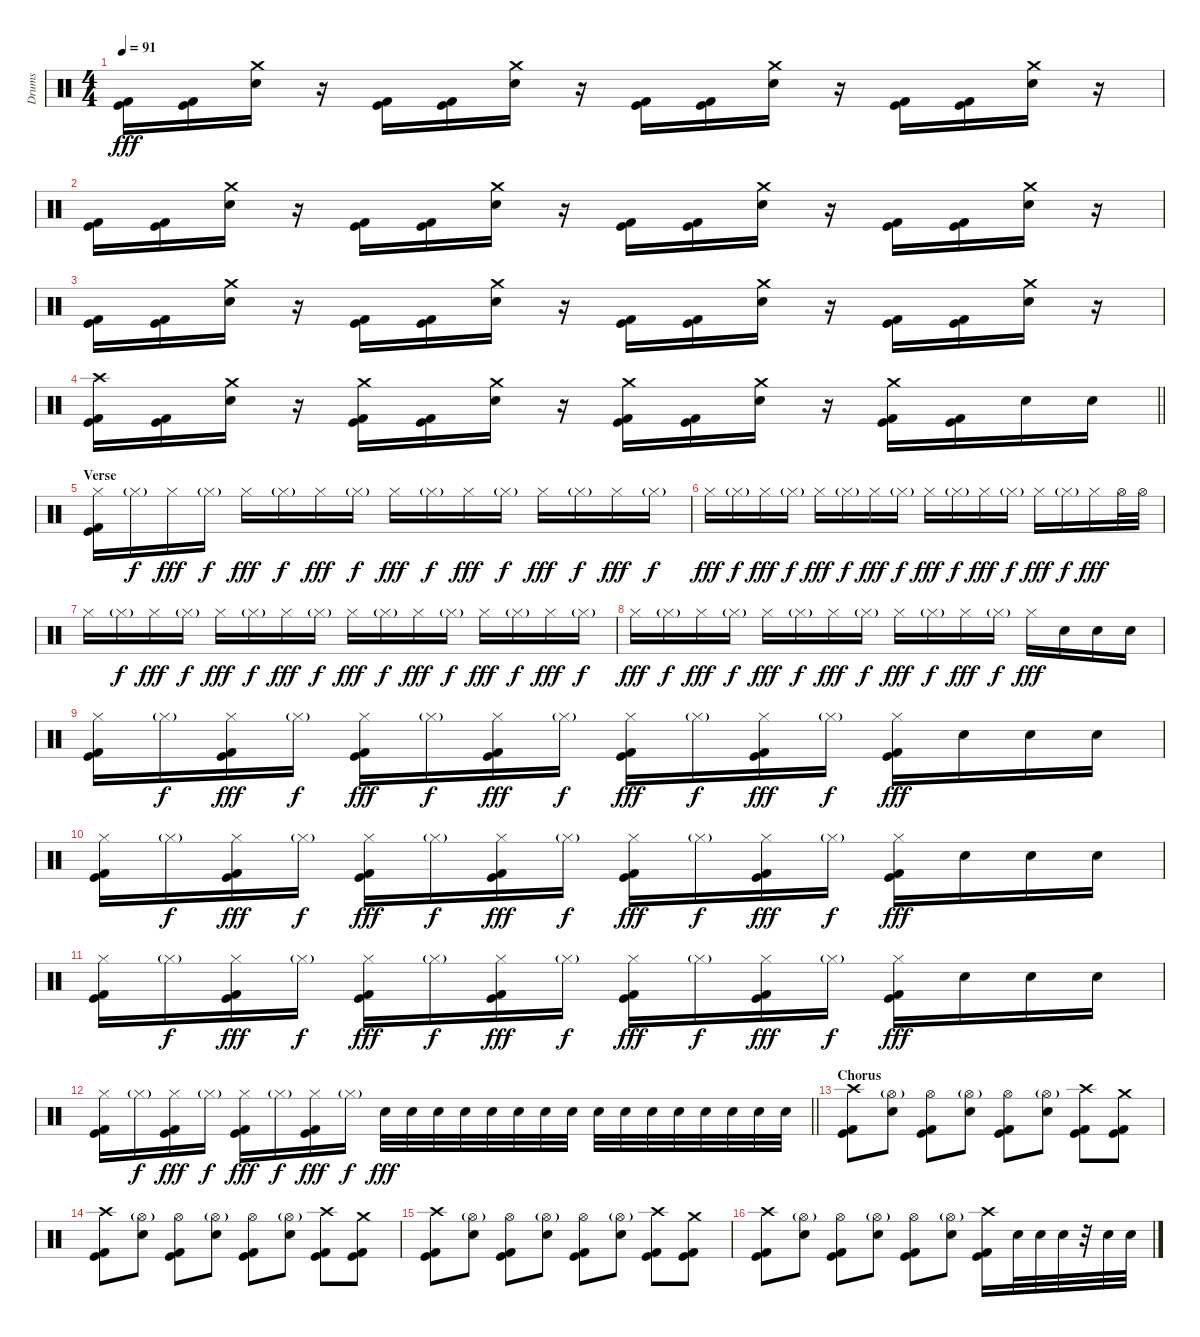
\track ("Drums" "Drums") {instrument percussion}
\staff {score}
\articulation defaults
\ts (4 4)
\tempo 91
\clef neutral
\ks c
("Kick (hit)" "Kick (hit) 2").16{dy fff} ("Kick (hit)" "Kick (hit) 2").16 ("Crash medium (hit)" "Electric Snare (hit)").16 r.16 ("Kick (hit)" "Kick (hit) 2").16 ("Kick (hit)" "Kick (hit) 2").16 ("Crash medium (hit)" "Electric Snare (hit)").16 r.16 ("Kick (hit)" "Kick (hit) 2").16 ("Kick (hit)" "Kick (hit) 2").16 ("Crash medium (hit)" "Electric Snare (hit)").16 r.16 ("Kick (hit)" "Kick (hit) 2").16 ("Kick (hit)" "Kick (hit) 2").16 ("Crash medium (hit)" "Electric Snare (hit)").16 r.16 |
("Kick (hit)" "Kick (hit) 2").16 ("Kick (hit)" "Kick (hit) 2").16 ("Crash medium (hit)" "Electric Snare (hit)").16 r.16 ("Kick (hit)" "Kick (hit) 2").16 ("Kick (hit)" "Kick (hit) 2").16 ("Crash medium (hit)" "Electric Snare (hit)").16 r.16 ("Kick (hit)" "Kick (hit) 2").16 ("Kick (hit)" "Kick (hit) 2").16 ("Crash medium (hit)" "Electric Snare (hit)").16 r.16 ("Kick (hit)" "Kick (hit) 2").16 ("Kick (hit)" "Kick (hit) 2").16 ("Crash medium (hit)" "Electric Snare (hit)").16 r.16 |
("Kick (hit)" "Kick (hit) 2").16 ("Kick (hit)" "Kick (hit) 2").16 ("Crash medium (hit)" "Electric Snare (hit)").16 r.16 ("Kick (hit)" "Kick (hit) 2").16 ("Kick (hit)" "Kick (hit) 2").16 ("Crash medium (hit)" "Electric Snare (hit)").16 r.16 ("Kick (hit)" "Kick (hit) 2").16 ("Kick (hit)" "Kick (hit) 2").16 ("Crash medium (hit)" "Electric Snare (hit)").16 r.16 ("Kick (hit)" "Kick (hit) 2").16 ("Kick (hit)" "Kick (hit) 2").16 ("Crash medium (hit)" "Electric Snare (hit)").16 r.16 |
\barLineRight lightlight
("Crash high (hit)" "Kick (hit)" "Kick (hit) 2").16 ("Kick (hit)" "Kick (hit) 2").16 ("Crash medium (hit)" "Electric Snare (hit)").16 r.16 ("Crash medium (hit)" "Kick (hit)" "Kick (hit) 2").16 ("Kick (hit)" "Kick (hit) 2").16 ("Crash medium (hit)" "Electric Snare (hit)").16 r.16 ("Crash medium (hit)" "Kick (hit)" "Kick (hit) 2").16 ("Kick (hit)" "Kick (hit) 2").16 ("Crash medium (hit)" "Electric Snare (hit)").16 r.16 ("Crash medium (hit)" "Kick (hit)" "Kick (hit) 2").16 ("Kick (hit)" "Kick (hit) 2").16 "Electric Snare (hit)".16 "Electric Snare (hit)".16 |
\section ("" "Verse")
("Hi-Hat (closed)" "Kick (hit)" "Kick (hit) 2").16 "Hi-Hat (closed)"{g}.16{dy f} "Hi-Hat (closed)".16{dy fff} "Hi-Hat (closed)"{g}.16{dy f} "Hi-Hat (closed)".16{dy fff} "Hi-Hat (closed)"{g}.16{dy f} "Hi-Hat (closed)".16{dy fff} "Hi-Hat (closed)"{g}.16{dy f} "Hi-Hat (closed)".16{dy fff} "Hi-Hat (closed)"{g}.16{dy f} "Hi-Hat (closed)".16{dy fff} "Hi-Hat (closed)"{g}.16{dy f} "Hi-Hat (closed)".16{dy fff} "Hi-Hat (closed)"{g}.16{dy f} "Hi-Hat (closed)".16{dy fff} "Hi-Hat (closed)"{g}.16{dy f} |
"Hi-Hat (closed)".16{dy fff} "Hi-Hat (closed)"{g}.16{dy f} "Hi-Hat (closed)".16{dy fff} "Hi-Hat (closed)"{g}.16{dy f} "Hi-Hat (closed)".16{dy fff} "Hi-Hat (closed)"{g}.16{dy f} "Hi-Hat (closed)".16{dy fff} "Hi-Hat (closed)"{g}.16{dy f} "Hi-Hat (closed)".16{dy fff} "Hi-Hat (closed)"{g}.16{dy f} "Hi-Hat (closed)".16{dy fff} "Hi-Hat (closed)"{g}.16{dy f} "Hi-Hat (closed)".16{dy fff} "Hi-Hat (closed)"{g}.16{dy f} "Hi-Hat (closed)".16{dy fff} "Hi-Hat (open)".32 "Hi-Hat (open)".32 |
"Hi-Hat (closed)".16 "Hi-Hat (closed)"{g}.16{dy f} "Hi-Hat (closed)".16{dy fff} "Hi-Hat (closed)"{g}.16{dy f} "Hi-Hat (closed)".16{dy fff} "Hi-Hat (closed)"{g}.16{dy f} "Hi-Hat (closed)".16{dy fff} "Hi-Hat (closed)"{g}.16{dy f} "Hi-Hat (closed)".16{dy fff} "Hi-Hat (closed)"{g}.16{dy f} "Hi-Hat (closed)".16{dy fff} "Hi-Hat (closed)"{g}.16{dy f} "Hi-Hat (closed)".16{dy fff} "Hi-Hat (closed)"{g}.16{dy f} "Hi-Hat (closed)".16{dy fff} "Hi-Hat (closed)"{g}.16{dy f} |
"Hi-Hat (closed)".16{dy fff} "Hi-Hat (closed)"{g}.16{dy f} "Hi-Hat (closed)".16{dy fff} "Hi-Hat (closed)"{g}.16{dy f} "Hi-Hat (closed)".16{dy fff} "Hi-Hat (closed)"{g}.16{dy f} "Hi-Hat (closed)".16{dy fff} "Hi-Hat (closed)"{g}.16{dy f} "Hi-Hat (closed)".16{dy fff} "Hi-Hat (closed)"{g}.16{dy f} "Hi-Hat (closed)".16{dy fff} "Hi-Hat (closed)"{g}.16{dy f} "Hi-Hat (closed)".16{dy fff} "Electric Snare (hit)".16 "Electric Snare (hit)".16 "Electric Snare (hit)".16 |
("Hi-Hat (closed)" "Kick (hit)" "Kick (hit) 2").16 "Hi-Hat (closed)"{g}.16{dy f} ("Hi-Hat (closed)" "Kick (hit)" "Kick (hit) 2").16{dy fff} "Hi-Hat (closed)"{g}.16{dy f} ("Hi-Hat (closed)" "Kick (hit)" "Kick (hit) 2").16{dy fff} "Hi-Hat (closed)"{g}.16{dy f} ("Hi-Hat (closed)" "Kick (hit)" "Kick (hit) 2").16{dy fff} "Hi-Hat (closed)"{g}.16{dy f} ("Hi-Hat (closed)" "Kick (hit)" "Kick (hit) 2").16{dy fff} "Hi-Hat (closed)"{g}.16{dy f} ("Hi-Hat (closed)" "Kick (hit)" "Kick (hit) 2").16{dy fff} "Hi-Hat (closed)"{g}.16{dy f} ("Hi-Hat (closed)" "Kick (hit)" "Kick (hit) 2").16{dy fff} "Electric Snare (hit)".16 "Electric Snare (hit)".16 "Electric Snare (hit)".16 |
("Hi-Hat (closed)" "Kick (hit)" "Kick (hit) 2").16 "Hi-Hat (closed)"{g}.16{dy f} ("Hi-Hat (closed)" "Kick (hit)" "Kick (hit) 2").16{dy fff} "Hi-Hat (closed)"{g}.16{dy f} ("Hi-Hat (closed)" "Kick (hit)" "Kick (hit) 2").16{dy fff} "Hi-Hat (closed)"{g}.16{dy f} ("Hi-Hat (closed)" "Kick (hit)" "Kick (hit) 2").16{dy fff} "Hi-Hat (closed)"{g}.16{dy f} ("Hi-Hat (closed)" "Kick (hit)" "Kick (hit) 2").16{dy fff} "Hi-Hat (closed)"{g}.16{dy f} ("Hi-Hat (closed)" "Kick (hit)" "Kick (hit) 2").16{dy fff} "Hi-Hat (closed)"{g}.16{dy f} ("Hi-Hat (closed)" "Kick (hit)" "Kick (hit) 2").16{dy fff} "Electric Snare (hit)".16 "Electric Snare (hit)".16 "Electric Snare (hit)".16 |
("Hi-Hat (closed)" "Kick (hit)" "Kick (hit) 2").16 "Hi-Hat (closed)"{g}.16{dy f} ("Hi-Hat (closed)" "Kick (hit)" "Kick (hit) 2").16{dy fff} "Hi-Hat (closed)"{g}.16{dy f} ("Hi-Hat (closed)" "Kick (hit)" "Kick (hit) 2").16{dy fff} "Hi-Hat (closed)"{g}.16{dy f} ("Hi-Hat (closed)" "Kick (hit)" "Kick (hit) 2").16{dy fff} "Hi-Hat (closed)"{g}.16{dy f} ("Hi-Hat (closed)" "Kick (hit)" "Kick (hit) 2").16{dy fff} "Hi-Hat (closed)"{g}.16{dy f} ("Hi-Hat (closed)" "Kick (hit)" "Kick (hit) 2").16{dy fff} "Hi-Hat (closed)"{g}.16{dy f} ("Hi-Hat (closed)" "Kick (hit)" "Kick (hit) 2").16{dy fff} "Electric Snare (hit)".16 "Electric Snare (hit)".16 "Electric Snare (hit)".16 |
\barLineRight lightlight
("Hi-Hat (closed)" "Kick (hit)" "Kick (hit) 2").16 "Hi-Hat (closed)"{g}.16{dy f} ("Hi-Hat (closed)" "Kick (hit)" "Kick (hit) 2").16{dy fff} "Hi-Hat (closed)"{g}.16{dy f} ("Hi-Hat (closed)" "Kick (hit)" "Kick (hit) 2").16{dy fff} "Hi-Hat (closed)"{g}.16{dy f} ("Hi-Hat (closed)" "Kick (hit)" "Kick (hit) 2").16{dy fff} "Hi-Hat (closed)"{g}.16{dy f} "Electric Snare (hit)".32{dy fff} "Electric Snare (hit)".32 "Electric Snare (hit)".32 "Electric Snare (hit)".32 "Electric Snare (hit)".32 "Electric Snare (hit)".32 "Electric Snare (hit)".32 "Electric Snare (hit)".32 "Electric Snare (hit)".32 "Electric Snare (hit)".32 "Electric Snare (hit)".32 "Electric Snare (hit)".32 "Electric Snare (hit)".32 "Electric Snare (hit)".32 "Electric Snare (hit)".32 "Electric Snare (hit)".32 |
\section ("" "Chorus")
("Crash high (hit)" "Kick (hit)" "Kick (hit) 2").8 ("Hi-Hat (open)"{g} "Electric Snare (hit)").8 ("Hi-Hat (open)" "Kick (hit)" "Kick (hit) 2").8 ("Hi-Hat (open)"{g} "Electric Snare (hit)").8 ("Hi-Hat (open)" "Kick (hit)" "Kick (hit) 2").8 ("Hi-Hat (open)"{g} "Electric Snare (hit)").8 ("Crash high (hit)" "Kick (hit)" "Kick (hit) 2").8 ("Crash medium (hit)" "Kick (hit)" "Kick (hit) 2").8 |
("Crash high (hit)" "Kick (hit)" "Kick (hit) 2").8 ("Hi-Hat (open)"{g} "Electric Snare (hit)").8 ("Hi-Hat (open)" "Kick (hit)" "Kick (hit) 2").8 ("Hi-Hat (open)"{g} "Electric Snare (hit)").8 ("Hi-Hat (open)" "Kick (hit)" "Kick (hit) 2").8 ("Hi-Hat (open)"{g} "Electric Snare (hit)").8 ("Crash high (hit)" "Kick (hit)" "Kick (hit) 2").8 ("Crash medium (hit)" "Kick (hit)" "Kick (hit) 2").8 |
("Crash high (hit)" "Kick (hit)" "Kick (hit) 2").8 ("Hi-Hat (open)"{g} "Electric Snare (hit)").8 ("Hi-Hat (open)" "Kick (hit)" "Kick (hit) 2").8 ("Hi-Hat (open)"{g} "Electric Snare (hit)").8 ("Hi-Hat (open)" "Kick (hit)" "Kick (hit) 2").8 ("Hi-Hat (open)"{g} "Electric Snare (hit)").8 ("Crash high (hit)" "Kick (hit)" "Kick (hit) 2").8 ("Crash medium (hit)" "Kick (hit)" "Kick (hit) 2").8 |
("Crash high (hit)" "Kick (hit)" "Kick (hit) 2").8 ("Hi-Hat (open)"{g} "Electric Snare (hit)").8 ("Hi-Hat (open)" "Kick (hit)" "Kick (hit) 2").8 ("Hi-Hat (open)"{g} "Electric Snare (hit)").8 ("Hi-Hat (open)" "Kick (hit)" "Kick (hit) 2").8 ("Hi-Hat (open)"{g} "Electric Snare (hit)").8 ("Crash high (hit)" "Kick (hit)" "Kick (hit) 2").16 "Electric Snare (hit)".32 "Electric Snare (hit)".32 "Electric Snare (hit)".32 r.32 "Electric Snare (hit)".32 "Electric Snare (hit)".32
